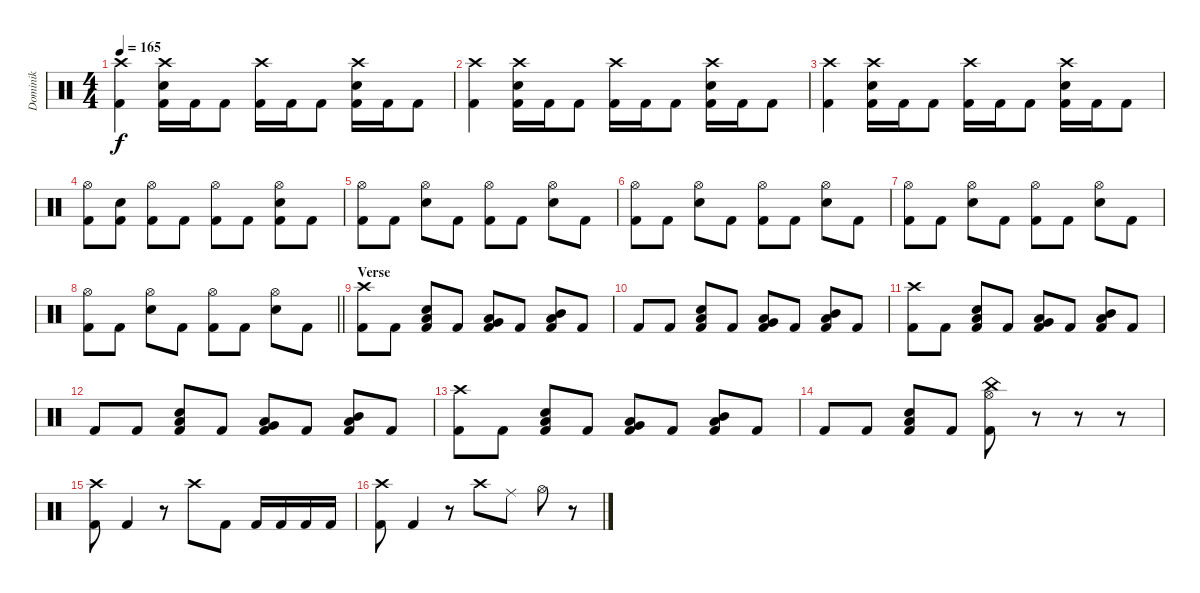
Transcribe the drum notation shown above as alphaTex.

\track ("Dominik" "Dominik") {instrument percussion}
\staff {score}
\articulation defaults
\ts (4 4)
\tempo 165
\clef neutral
\ks c
("Crash high (hit)" "Kick (hit) 2").4{dy f} ("Crash high (hit)" "Electric Snare (hit)" "Kick (hit) 2").16 "Kick (hit) 2".16 "Kick (hit) 2".8 ("Crash high (hit)" "Kick (hit) 2").16 "Kick (hit) 2".16 "Kick (hit) 2".8 ("Crash high (hit)" "Electric Snare (hit)" "Kick (hit) 2").16 "Kick (hit) 2".16 "Kick (hit) 2".8 |
("Crash high (hit)" "Kick (hit) 2").4 ("Crash high (hit)" "Electric Snare (hit)" "Kick (hit) 2").16 "Kick (hit) 2".16 "Kick (hit) 2".8 ("Crash high (hit)" "Kick (hit) 2").16 "Kick (hit) 2".16 "Kick (hit) 2".8 ("Crash high (hit)" "Electric Snare (hit)" "Kick (hit) 2").16 "Kick (hit) 2".16 "Kick (hit) 2".8 |
("Crash high (hit)" "Kick (hit) 2").4 ("Crash high (hit)" "Electric Snare (hit)" "Kick (hit) 2").16 "Kick (hit) 2".16 "Kick (hit) 2".8 ("Crash high (hit)" "Kick (hit) 2").16 "Kick (hit) 2".16 "Kick (hit) 2".8 ("Crash high (hit)" "Electric Snare (hit)" "Kick (hit) 2").16 "Kick (hit) 2".16 "Kick (hit) 2".8 |
("Hi-Hat (open)" "Kick (hit) 2").8 ("Electric Snare (hit)" "Kick (hit) 2").8 ("Hi-Hat (open)" "Kick (hit) 2").8 "Kick (hit) 2".8 ("Hi-Hat (open)" "Kick (hit) 2").8 "Kick (hit) 2".8 ("Hi-Hat (open)" "Electric Snare (hit)" "Kick (hit) 2").8 "Kick (hit) 2".8 |
("Hi-Hat (open)" "Kick (hit) 2").8 "Kick (hit) 2".8 ("Hi-Hat (open)" "Electric Snare (hit)").8 "Kick (hit) 2".8 ("Hi-Hat (open)" "Kick (hit) 2").8 "Kick (hit) 2".8 ("Hi-Hat (open)" "Electric Snare (hit)").8 "Kick (hit) 2".8 |
("Hi-Hat (open)" "Kick (hit) 2").8 "Kick (hit) 2".8 ("Hi-Hat (open)" "Electric Snare (hit)").8 "Kick (hit) 2".8 ("Hi-Hat (open)" "Kick (hit) 2").8 "Kick (hit) 2".8 ("Hi-Hat (open)" "Electric Snare (hit)").8 "Kick (hit) 2".8 |
("Hi-Hat (open)" "Kick (hit) 2").8 "Kick (hit) 2".8 ("Hi-Hat (open)" "Electric Snare (hit)").8 "Kick (hit) 2".8 ("Hi-Hat (open)" "Kick (hit) 2").8 "Kick (hit) 2".8 ("Hi-Hat (open)" "Electric Snare (hit)").8 "Kick (hit) 2".8 |
\barLineRight lightlight
("Hi-Hat (open)" "Kick (hit) 2").8 "Kick (hit) 2".8 ("Hi-Hat (open)" "Electric Snare (hit)").8 "Kick (hit) 2".8 ("Hi-Hat (open)" "Kick (hit) 2").8 "Kick (hit) 2".8 ("Hi-Hat (open)" "Electric Snare (hit)").8 "Kick (hit) 2".8 |
\section ("" "Verse")
("Crash high (hit)" "Kick (hit) 2").8 "Kick (hit) 2".8 ("Electric Snare (hit)" "Low Tom (hit)" "Kick (hit) 2").8 "Kick (hit) 2".8 ("Low Floor Tom (hit)" "Very Low Tom (hit)" "Kick (hit) 2").8 "Kick (hit) 2".8 ("Mid Tom (hit)" "Low Tom (hit)" "Kick (hit) 2").8 "Kick (hit) 2".8 |
"Kick (hit) 2".8 "Kick (hit) 2".8 ("Electric Snare (hit)" "Low Tom (hit)" "Kick (hit) 2").8 "Kick (hit) 2".8 ("Low Floor Tom (hit)" "Very Low Tom (hit)" "Kick (hit) 2").8 "Kick (hit) 2".8 ("Mid Tom (hit)" "Low Tom (hit)" "Kick (hit) 2").8 "Kick (hit) 2".8 |
("Crash high (hit)" "Kick (hit) 2").8 "Kick (hit) 2".8 ("Electric Snare (hit)" "Low Tom (hit)" "Kick (hit) 2").8 "Kick (hit) 2".8 ("Low Floor Tom (hit)" "Very Low Tom (hit)" "Kick (hit) 2").8 "Kick (hit) 2".8 ("Mid Tom (hit)" "Low Tom (hit)" "Kick (hit) 2").8 "Kick (hit) 2".8 |
"Kick (hit) 2".8 "Kick (hit) 2".8 ("Electric Snare (hit)" "Low Tom (hit)" "Kick (hit) 2").8 "Kick (hit) 2".8 ("Low Floor Tom (hit)" "Very Low Tom (hit)" "Kick (hit) 2").8 "Kick (hit) 2".8 ("Mid Tom (hit)" "Low Tom (hit)" "Kick (hit) 2").8 "Kick (hit) 2".8 |
("Crash high (hit)" "Kick (hit) 2").8 "Kick (hit) 2".8 ("Electric Snare (hit)" "Low Tom (hit)" "Kick (hit) 2").8 "Kick (hit) 2".8 ("Low Floor Tom (hit)" "Very Low Tom (hit)" "Kick (hit) 2").8 "Kick (hit) 2".8 ("Mid Tom (hit)" "Low Tom (hit)" "Kick (hit) 2").8 "Kick (hit) 2".8 |
"Kick (hit) 2".8 "Kick (hit) 2".8 ("Electric Snare (hit)" "Low Tom (hit)" "Kick (hit) 2").8 "Kick (hit) 2".8 ("Hi-Hat (open)" "China (hit)" "Kick (hit) 2").8 r.8 r.8 r.8 |
("Crash high (hit)" "Kick (hit) 2").8 "Kick (hit) 2".4 r.8 "Crash high (hit)".8 "Kick (hit) 2".8 "Kick (hit) 2".16 "Kick (hit) 2".16 "Kick (hit) 2".16 "Kick (hit) 2".16 |
("Crash high (hit)" "Kick (hit) 2").8 "Kick (hit) 2".4 r.8 "Crash high (hit)".8 "Ride (middle)".8 "Hi-Hat (open)".8 r.8
